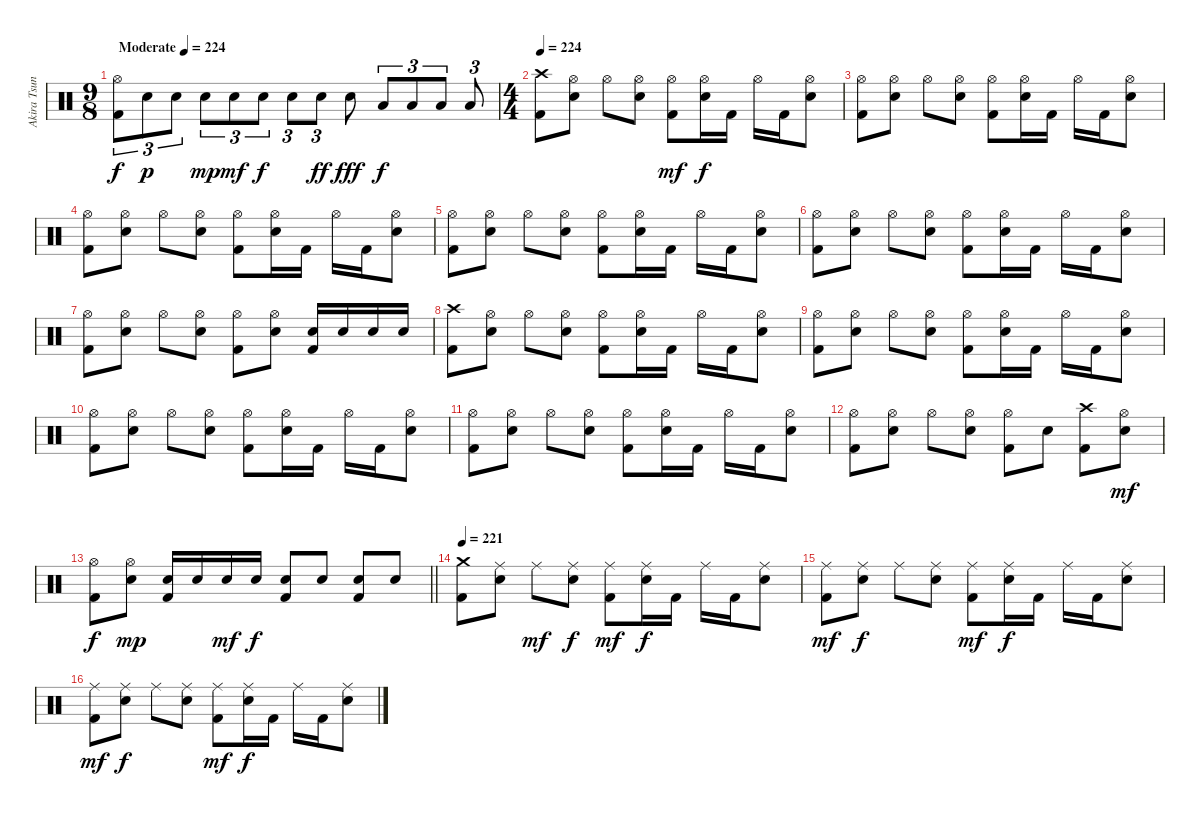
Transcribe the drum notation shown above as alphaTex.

\track ("Akira Tsuneoka" "Akira Tsun") {instrument percussion}
\staff {score}
\articulation defaults
\ts (9 8)
\tempo (224 "Moderate")
\tempo 260
\tempo (224 "Moderate")
\clef neutral
\ks c
("Hi-Hat (open)" "Kick (hit) 2").8{tu (3 2) dy f} "Electric Snare (hit)".8{tu (3 2) dy p} "Electric Snare (hit)".8{tu (3 2)} "Electric Snare (hit)".8{tu (3 2) dy mp} "Electric Snare (hit)".8{tu (3 2) dy mf} "Electric Snare (hit)".8{tu (3 2) dy f} "Electric Snare (hit)".8{tu (3 2)} "Electric Snare (hit)".8{tu (3 2) dy ff} "Electric Snare (hit)".8{dy fff} "Low Floor Tom (hit)".8{tu (3 2) dy f} "Low Floor Tom (hit)".8{tu (3 2)} "Low Floor Tom (hit)".8{tu (3 2)} "Low Floor Tom (hit)".8{tu (3 2)} |
\ts (4 4)
\tempo 224
("Crash high (hit)" "Kick (hit) 2").8 ("Hi-Hat (open)" "Electric Snare (hit)").8 "Hi-Hat (open)".8 ("Hi-Hat (open)" "Electric Snare (hit)").8 ("Hi-Hat (open)" "Kick (hit) 2").8{dy mf} ("Hi-Hat (open)" "Electric Snare (hit)").16{dy f} "Kick (hit) 2".16 "Hi-Hat (open)".16 "Kick (hit) 2".16 ("Hi-Hat (open)" "Electric Snare (hit)").8 |
("Hi-Hat (open)" "Kick (hit) 2").8 ("Hi-Hat (open)" "Electric Snare (hit)").8 "Hi-Hat (open)".8 ("Hi-Hat (open)" "Electric Snare (hit)").8 ("Hi-Hat (open)" "Kick (hit) 2").8 ("Hi-Hat (open)" "Electric Snare (hit)").16 "Kick (hit) 2".16 "Hi-Hat (open)".16 "Kick (hit) 2".16 ("Hi-Hat (open)" "Electric Snare (hit)").8 |
("Hi-Hat (open)" "Kick (hit) 2").8 ("Hi-Hat (open)" "Electric Snare (hit)").8 "Hi-Hat (open)".8 ("Hi-Hat (open)" "Electric Snare (hit)").8 ("Hi-Hat (open)" "Kick (hit) 2").8 ("Hi-Hat (open)" "Electric Snare (hit)").16 "Kick (hit) 2".16 "Hi-Hat (open)".16 "Kick (hit) 2".16 ("Hi-Hat (open)" "Electric Snare (hit)").8 |
("Hi-Hat (open)" "Kick (hit) 2").8 ("Hi-Hat (open)" "Electric Snare (hit)").8 "Hi-Hat (open)".8 ("Hi-Hat (open)" "Electric Snare (hit)").8 ("Hi-Hat (open)" "Kick (hit) 2").8 ("Hi-Hat (open)" "Electric Snare (hit)").16 "Kick (hit) 2".16 "Hi-Hat (open)".16 "Kick (hit) 2".16 ("Hi-Hat (open)" "Electric Snare (hit)").8 |
("Hi-Hat (open)" "Kick (hit) 2").8 ("Hi-Hat (open)" "Electric Snare (hit)").8 "Hi-Hat (open)".8 ("Hi-Hat (open)" "Electric Snare (hit)").8 ("Hi-Hat (open)" "Kick (hit) 2").8 ("Hi-Hat (open)" "Electric Snare (hit)").16 "Kick (hit) 2".16 "Hi-Hat (open)".16 "Kick (hit) 2".16 ("Hi-Hat (open)" "Electric Snare (hit)").8 |
("Hi-Hat (open)" "Kick (hit) 2").8 ("Hi-Hat (open)" "Electric Snare (hit)").8 "Hi-Hat (open)".8 ("Hi-Hat (open)" "Electric Snare (hit)").8 ("Hi-Hat (open)" "Kick (hit) 2").8 ("Hi-Hat (open)" "Electric Snare (hit)").8 ("Electric Snare (hit)" "Kick (hit) 2").16 "Electric Snare (hit)".16 "Electric Snare (hit)".16 "Electric Snare (hit)".16 |
("Crash high (hit)" "Kick (hit) 2").8 ("Hi-Hat (open)" "Electric Snare (hit)").8 "Hi-Hat (open)".8 ("Hi-Hat (open)" "Electric Snare (hit)").8 ("Hi-Hat (open)" "Kick (hit) 2").8 ("Hi-Hat (open)" "Electric Snare (hit)").16 "Kick (hit) 2".16 "Hi-Hat (open)".16 "Kick (hit) 2".16 ("Hi-Hat (open)" "Electric Snare (hit)").8 |
("Hi-Hat (open)" "Kick (hit) 2").8 ("Hi-Hat (open)" "Electric Snare (hit)").8 "Hi-Hat (open)".8 ("Hi-Hat (open)" "Electric Snare (hit)").8 ("Hi-Hat (open)" "Kick (hit) 2").8 ("Hi-Hat (open)" "Electric Snare (hit)").16 "Kick (hit) 2".16 "Hi-Hat (open)".16 "Kick (hit) 2".16 ("Hi-Hat (open)" "Electric Snare (hit)").8 |
("Hi-Hat (open)" "Kick (hit) 2").8 ("Hi-Hat (open)" "Electric Snare (hit)").8 "Hi-Hat (open)".8 ("Hi-Hat (open)" "Electric Snare (hit)").8 ("Hi-Hat (open)" "Kick (hit) 2").8 ("Hi-Hat (open)" "Electric Snare (hit)").16 "Kick (hit) 2".16 "Hi-Hat (open)".16 "Kick (hit) 2".16 ("Hi-Hat (open)" "Electric Snare (hit)").8 |
("Hi-Hat (open)" "Kick (hit) 2").8 ("Hi-Hat (open)" "Electric Snare (hit)").8 "Hi-Hat (open)".8 ("Hi-Hat (open)" "Electric Snare (hit)").8 ("Hi-Hat (open)" "Kick (hit) 2").8 ("Hi-Hat (open)" "Electric Snare (hit)").16 "Kick (hit) 2".16 "Hi-Hat (open)".16 "Kick (hit) 2".16 ("Hi-Hat (open)" "Electric Snare (hit)").8 |
("Hi-Hat (open)" "Kick (hit) 2").8 ("Hi-Hat (open)" "Electric Snare (hit)").8 "Hi-Hat (open)".8 ("Hi-Hat (open)" "Electric Snare (hit)").8 ("Hi-Hat (open)" "Kick (hit) 2").8 "Electric Snare (hit)".8 ("Crash high (hit)" "Kick (hit) 2").8 ("Hi-Hat (open)" "Electric Snare (hit)").8{dy mf} |
\barLineRight lightlight
("Hi-Hat (open)" "Kick (hit) 2").8{dy f} ("Hi-Hat (open)" "Electric Snare (hit)").8{dy mp} ("Electric Snare (hit)" "Kick (hit) 2").16 "Electric Snare (hit)".16 "Electric Snare (hit)".16{dy mf} "Electric Snare (hit)".16{dy f} ("Electric Snare (hit)" "Kick (hit) 2").8 "Electric Snare (hit)".8 ("Electric Snare (hit)" "Kick (hit) 2").8 "Electric Snare (hit)".8 |
\section ("" "")
\tempo 221
("Crash medium (hit)" "Kick (hit) 2").8 ("Ride (middle)" "Electric Snare (hit)").8 "Ride (middle)".8{dy mf} ("Ride (middle)" "Electric Snare (hit)").8{dy f} ("Ride (middle)" "Kick (hit) 2").8{dy mf} ("Ride (middle)" "Electric Snare (hit)").16{dy f} "Kick (hit) 2".16 "Ride (middle)".16 "Kick (hit) 2".16 ("Ride (middle)" "Electric Snare (hit)").8 |
("Ride (middle)" "Kick (hit) 2").8{dy mf} ("Ride (middle)" "Electric Snare (hit)").8{dy f} "Ride (middle)".8 ("Ride (middle)" "Electric Snare (hit)").8 ("Ride (middle)" "Kick (hit) 2").8{dy mf} ("Ride (middle)" "Electric Snare (hit)").16{dy f} "Kick (hit) 2".16 "Ride (middle)".16 "Kick (hit) 2".16 ("Ride (middle)" "Electric Snare (hit)").8 |
("Ride (middle)" "Kick (hit) 2").8{dy mf} ("Ride (middle)" "Electric Snare (hit)").8{dy f} "Ride (middle)".8 ("Ride (middle)" "Electric Snare (hit)").8 ("Ride (middle)" "Kick (hit) 2").8{dy mf} ("Ride (middle)" "Electric Snare (hit)").16{dy f} "Kick (hit) 2".16 "Ride (middle)".16 "Kick (hit) 2".16 ("Ride (middle)" "Electric Snare (hit)").8
